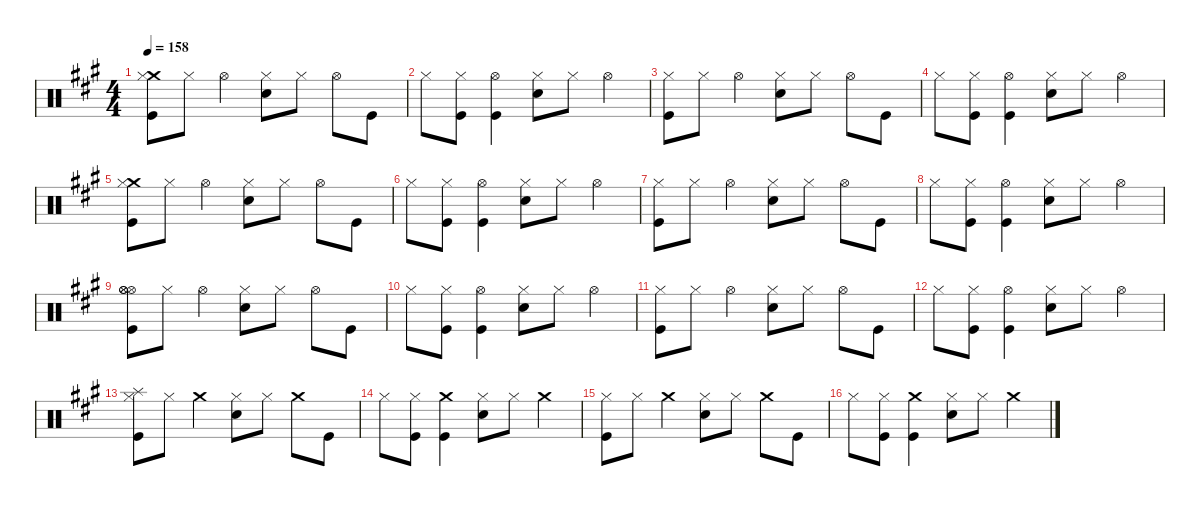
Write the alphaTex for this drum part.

\defaultSystemsLayout 4
\hideDynamics
\bracketExtendMode nobrackets
\singleTrackTrackNamePolicy hidden
\multiTrackTrackNamePolicy hidden
\firstSystemTrackNameMode fullname
\firstSystemTrackNameOrientation horizontal
\otherSystemsTrackNameOrientation horizontal
\track ("Drums" "drm.") {instrument percussion}
\staff {score}
\articulation defaults
\ts (4 4)
\tempo 158
\clef neutral
\ks f#minor
("Crash medium (hit)"{acc forcenatural} "Hi-Hat (closed)"{acc forcenatural} "Kick (hit)"{acc forcenatural}).8{dy f beam Down} "Hi-Hat (closed)"{acc forcenatural}.8{dy mf beam Down} "Hi-Hat (open)"{acc forcenatural}.4{dy f beam Down} ("Hi-Hat (closed)"{acc forcenatural} "Snare (hit) 2"{acc forcenatural}).8{beam Down} "Hi-Hat (closed)"{acc forcenatural}.8{dy mf beam Down} "Hi-Hat (open)"{acc forcenatural}.8{dy f beam Down} "Kick (hit)"{acc forcenatural}.8{beam Down} |
"Hi-Hat (closed)"{acc forcenatural}.8{beam Down} ("Hi-Hat (closed)"{acc forcenatural} "Kick (hit)"{acc forcenatural}).8{dy mf beam Down} ("Hi-Hat (open)"{acc forcenatural} "Kick (hit)"{acc forcenatural}).4{dy f beam Down} ("Hi-Hat (closed)"{acc forcenatural} "Snare (hit) 2"{acc forcenatural}).8{beam Down} "Hi-Hat (closed)"{acc forcenatural}.8{dy mf beam Down} "Hi-Hat (open)"{acc forcenatural}.4{dy f beam Down} |
("Hi-Hat (closed)"{acc forcenatural} "Kick (hit)"{acc forcenatural}).8{beam Down} "Hi-Hat (closed)"{acc forcenatural}.8{dy mf beam Down} "Hi-Hat (open)"{acc forcenatural}.4{dy f beam Down} ("Hi-Hat (closed)"{acc forcenatural} "Snare (hit) 2"{acc forcenatural}).8{beam Down} "Hi-Hat (closed)"{acc forcenatural}.8{dy mf beam Down} "Hi-Hat (open)"{acc forcenatural}.8{dy f beam Down} "Kick (hit)"{acc forcenatural}.8{beam Down} |
"Hi-Hat (closed)"{acc forcenatural}.8{beam Down} ("Hi-Hat (closed)"{acc forcenatural} "Kick (hit)"{acc forcenatural}).8{dy mf beam Down} ("Hi-Hat (open)"{acc forcenatural} "Kick (hit)"{acc forcenatural}).4{dy f beam Down} ("Hi-Hat (closed)"{acc forcenatural} "Snare (hit) 2"{acc forcenatural}).8{beam Down} "Hi-Hat (closed)"{acc forcenatural}.8{dy mf beam Down} "Hi-Hat (open)"{acc forcenatural}.4{dy f beam Down} |
("Crash medium (hit)"{acc forcenatural} "Hi-Hat (closed)"{acc forcenatural} "Kick (hit)"{acc forcenatural}).8{beam Down} "Hi-Hat (closed)"{acc forcenatural}.8{dy mf beam Down} "Hi-Hat (open)"{acc forcenatural}.4{dy f beam Down} ("Hi-Hat (closed)"{acc forcenatural} "Snare (hit) 2"{acc forcenatural}).8{beam Down} "Hi-Hat (closed)"{acc forcenatural}.8{dy mf beam Down} "Hi-Hat (open)"{acc forcenatural}.8{dy f beam Down} "Kick (hit)"{acc forcenatural}.8{beam Down} |
"Hi-Hat (closed)"{acc forcenatural}.8{beam Down} ("Hi-Hat (closed)"{acc forcenatural} "Kick (hit)"{acc forcenatural}).8{dy mf beam Down} ("Hi-Hat (open)"{acc forcenatural} "Kick (hit)"{acc forcenatural}).4{dy f beam Down} ("Hi-Hat (closed)"{acc forcenatural} "Snare (hit) 2"{acc forcenatural}).8{beam Down} "Hi-Hat (closed)"{acc forcenatural}.8{dy mf beam Down} "Hi-Hat (open)"{acc forcenatural}.4{dy f beam Down} |
("Hi-Hat (closed)"{acc forcenatural} "Kick (hit)"{acc forcenatural}).8{beam Down} "Hi-Hat (closed)"{acc forcenatural}.8{dy mf beam Down} "Hi-Hat (open)"{acc forcenatural}.4{dy f beam Down} ("Hi-Hat (closed)"{acc forcenatural} "Snare (hit) 2"{acc forcenatural}).8{beam Down} "Hi-Hat (closed)"{acc forcenatural}.8{dy mf beam Down} "Hi-Hat (open)"{acc forcenatural}.8{dy f beam Down} "Kick (hit)"{acc forcenatural}.8{beam Down} |
"Hi-Hat (closed)"{acc forcenatural}.8{beam Down} ("Hi-Hat (closed)"{acc forcenatural} "Kick (hit)"{acc forcenatural}).8{dy mf beam Down} ("Hi-Hat (open)"{acc forcenatural} "Kick (hit)"{acc forcenatural}).4{dy f beam Down} ("Hi-Hat (closed)"{acc forcenatural} "Snare (hit) 2"{acc forcenatural}).8{beam Down} "Hi-Hat (closed)"{acc forcenatural}.8{dy mf beam Down} "Hi-Hat (open)"{acc forcenatural}.4{dy f beam Down} |
("Hi-Hat (open)"{acc forcenatural} "Hi-Hat (open)"{acc forcenatural} "Hi-Hat (open)"{acc forcenatural} "Kick (hit)"{acc forcenatural}).8{beam Down} "Hi-Hat (closed)"{acc forcenatural}.8{dy mf beam Down} "Hi-Hat (open)"{acc forcenatural}.4{dy f beam Down} ("Hi-Hat (closed)"{acc forcenatural} "Snare (hit) 2"{acc forcenatural}).8{beam Down} "Hi-Hat (closed)"{acc forcenatural}.8{dy mf beam Down} "Hi-Hat (open)"{acc forcenatural}.8{dy f beam Down} "Kick (hit)"{acc forcenatural}.8{beam Down} |
"Hi-Hat (closed)"{acc forcenatural}.8{beam Down} ("Hi-Hat (closed)"{acc forcenatural} "Kick (hit)"{acc forcenatural}).8{dy mf beam Down} ("Hi-Hat (open)"{acc forcenatural} "Kick (hit)"{acc forcenatural}).4{dy f beam Down} ("Hi-Hat (closed)"{acc forcenatural} "Snare (hit) 2"{acc forcenatural}).8{beam Down} "Hi-Hat (closed)"{acc forcenatural}.8{dy mf beam Down} "Hi-Hat (open)"{acc forcenatural}.4{dy f beam Down} |
("Hi-Hat (closed)"{acc forcenatural} "Kick (hit)"{acc forcenatural}).8{beam Down} "Hi-Hat (closed)"{acc forcenatural}.8{dy mf beam Down} "Hi-Hat (open)"{acc forcenatural}.4{dy f beam Down} ("Hi-Hat (closed)"{acc forcenatural} "Snare (hit) 2"{acc forcenatural}).8{beam Down} "Hi-Hat (closed)"{acc forcenatural}.8{dy mf beam Down} "Hi-Hat (open)"{acc forcenatural}.8{dy f beam Down} "Kick (hit)"{acc forcenatural}.8{beam Down} |
"Hi-Hat (closed)"{acc forcenatural}.8{beam Down} ("Hi-Hat (closed)"{acc forcenatural} "Kick (hit)"{acc forcenatural}).8{dy mf beam Down} ("Hi-Hat (open)"{acc forcenatural} "Kick (hit)"{acc forcenatural}).4{dy f beam Down} ("Hi-Hat (closed)"{acc forcenatural} "Snare (hit) 2"{acc forcenatural}).8{beam Down} "Hi-Hat (closed)"{acc forcenatural}.8{dy mf beam Down} "Hi-Hat (open)"{acc forcenatural}.4{dy f beam Down} |
("Splash (hit)"{acc forcenatural} "Hi-Hat (closed)"{acc forcenatural} "Kick (hit)"{acc forcenatural}).8{beam Down} "Hi-Hat (closed)"{acc forcenatural}.8{dy mp beam Down} "Crash medium (hit)"{acc forcenatural}.4{dy f beam Down} ("Hi-Hat (closed)"{acc forcenatural} "Snare (hit) 2"{acc forcenatural}).8{dy mp beam Down} "Hi-Hat (closed)"{acc forcenatural}.8{beam Down} "Crash medium (hit)"{acc forcenatural}.8{dy f beam Down} "Kick (hit)"{acc forcenatural}.8{beam Down} |
"Hi-Hat (closed)"{acc forcenatural}.8{dy mp beam Down} ("Hi-Hat (closed)"{acc forcenatural} "Kick (hit)"{acc forcenatural}).8{beam Down} ("Crash medium (hit)"{acc forcenatural} "Kick (hit)"{acc forcenatural}).4{dy f beam Down} ("Hi-Hat (closed)"{acc forcenatural} "Snare (hit) 2"{acc forcenatural}).8{dy mp beam Down} "Hi-Hat (closed)"{acc forcenatural}.8{beam Down} "Crash medium (hit)"{acc forcenatural}.4{dy f beam Down} |
("Hi-Hat (closed)"{acc forcenatural} "Kick (hit)"{acc forcenatural}).8{dy mp beam Down} "Hi-Hat (closed)"{acc forcenatural}.8{beam Down} "Crash medium (hit)"{acc forcenatural}.4{dy f beam Down} ("Hi-Hat (closed)"{acc forcenatural} "Snare (hit) 2"{acc forcenatural}).8{dy mp beam Down} "Hi-Hat (closed)"{acc forcenatural}.8{beam Down} "Crash medium (hit)"{acc forcenatural}.8{dy f beam Down} "Kick (hit)"{acc forcenatural}.8{beam Down} |
"Hi-Hat (closed)"{acc forcenatural}.8{dy mp beam Down} ("Hi-Hat (closed)"{acc forcenatural} "Kick (hit)"{acc forcenatural}).8{beam Down} ("Crash medium (hit)"{acc forcenatural} "Kick (hit)"{acc forcenatural}).4{dy f beam Down} ("Hi-Hat (closed)"{acc forcenatural} "Snare (hit) 2"{acc forcenatural}).8{dy mp beam Down} "Hi-Hat (closed)"{acc forcenatural}.8{beam Down} "Crash medium (hit)"{acc forcenatural}.4{dy f beam Down}
